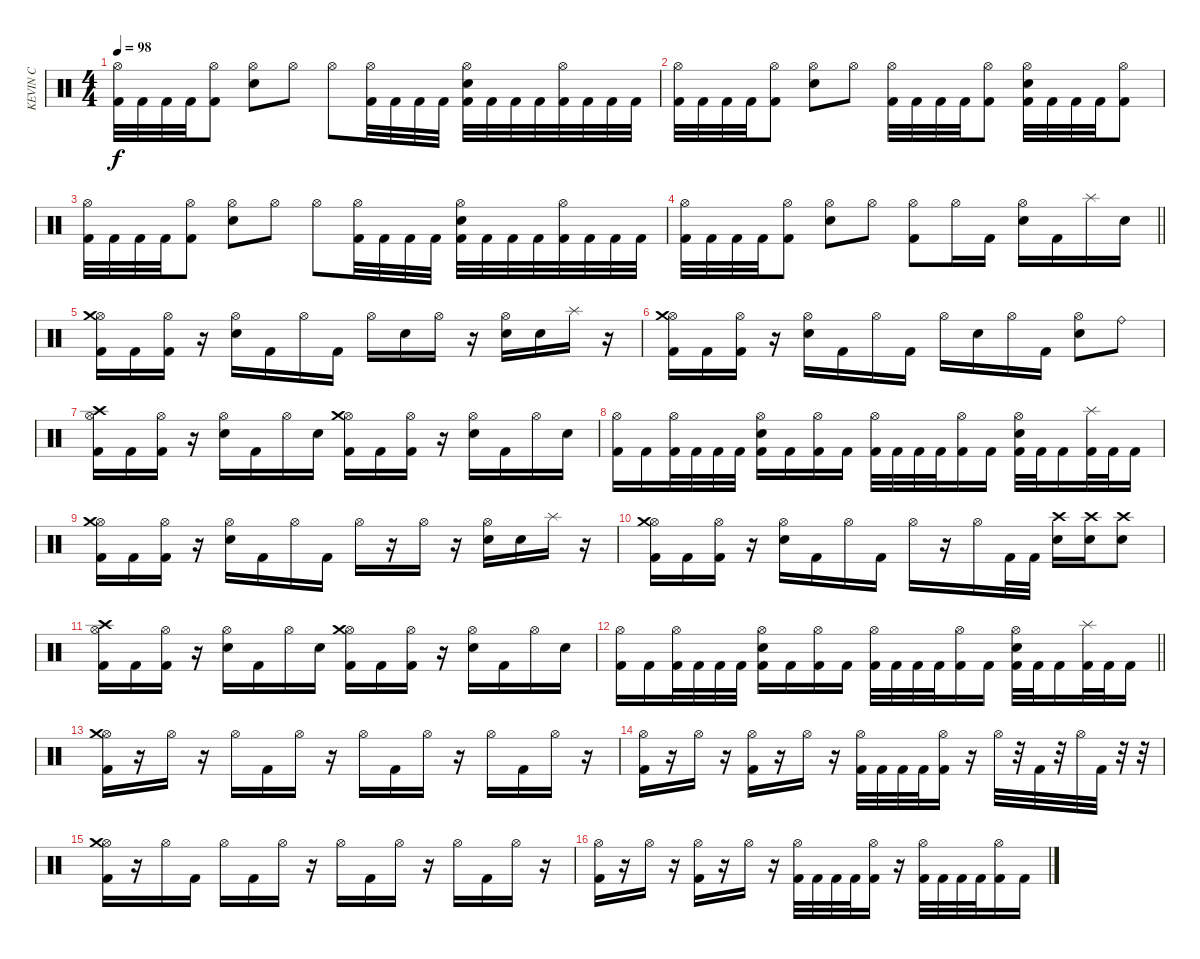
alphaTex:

\track ("KEVIN C" "KEVIN C") {instrument percussion}
\staff {score}
\articulation defaults
\ts (4 4)
\tempo 98
\clef neutral
\ks c
("Hi-Hat (open)" "Kick (hit) 2").32{dy f} "Kick (hit) 2".32 "Kick (hit) 2".32 "Kick (hit) 2".32 ("Hi-Hat (open)" "Kick (hit) 2").8 ("Hi-Hat (open)" "Snare (hit) 2").8 "Hi-Hat (open)".8 "Hi-Hat (open)".8 ("Hi-Hat (open)" "Kick (hit) 2").32 "Kick (hit) 2".32 "Kick (hit) 2".32 "Kick (hit) 2".32 ("Hi-Hat (open)" "Snare (hit) 2" "Kick (hit) 2").32 "Kick (hit) 2".32 "Kick (hit) 2".32 "Kick (hit) 2".32 ("Hi-Hat (open)" "Kick (hit) 2").32 "Kick (hit) 2".32 "Kick (hit) 2".32 "Kick (hit) 2".32 |
("Hi-Hat (open)" "Kick (hit) 2").32 "Kick (hit) 2".32 "Kick (hit) 2".32 "Kick (hit) 2".32 ("Hi-Hat (open)" "Kick (hit) 2").8 ("Hi-Hat (open)" "Snare (hit) 2").8 "Hi-Hat (open)".8 ("Hi-Hat (open)" "Kick (hit) 2").32 "Kick (hit) 2".32 "Kick (hit) 2".32 "Kick (hit) 2".32 ("Hi-Hat (open)" "Kick (hit) 2").8 ("Hi-Hat (open)" "Snare (hit) 2" "Kick (hit) 2").32 "Kick (hit) 2".32 "Kick (hit) 2".32 "Kick (hit) 2".32 ("Hi-Hat (open)" "Kick (hit) 2").8 |
("Hi-Hat (open)" "Kick (hit) 2").32 "Kick (hit) 2".32 "Kick (hit) 2".32 "Kick (hit) 2".32 ("Hi-Hat (open)" "Kick (hit) 2").8 ("Hi-Hat (open)" "Snare (hit) 2").8 "Hi-Hat (open)".8 "Hi-Hat (open)".8 ("Hi-Hat (open)" "Kick (hit) 2").32 "Kick (hit) 2".32 "Kick (hit) 2".32 "Kick (hit) 2".32 ("Hi-Hat (open)" "Snare (hit) 2" "Kick (hit) 2").32 "Kick (hit) 2".32 "Kick (hit) 2".32 "Kick (hit) 2".32 ("Hi-Hat (open)" "Kick (hit) 2").32 "Kick (hit) 2".32 "Kick (hit) 2".32 "Kick (hit) 2".32 |
\barLineRight lightlight
("Hi-Hat (open)" "Kick (hit) 2").32 "Kick (hit) 2".32 "Kick (hit) 2".32 "Kick (hit) 2".32 ("Hi-Hat (open)" "Kick (hit) 2").8 ("Hi-Hat (open)" "Snare (hit) 2").8 "Hi-Hat (open)".8 ("Hi-Hat (open)" "Kick (hit) 2").8 "Hi-Hat (open)".16 "Kick (hit) 2".16 ("Hi-Hat (open)" "Snare (hit) 2").16 "Kick (hit) 2".16 "Splash (hit)".16 "Snare (hit) 2".16 |
("Hi-Hat (open)" "Crash medium (hit)" "Kick (hit) 2").16 "Kick (hit) 2".16 ("Hi-Hat (open)" "Kick (hit) 2").16 r.16 ("Hi-Hat (open)" "Snare (hit) 2").16 "Kick (hit) 2".16 "Hi-Hat (open)".16 "Kick (hit) 2".16 "Hi-Hat (open)".16 "Snare (hit) 2".16 "Hi-Hat (open)".16 r.16 ("Hi-Hat (open)" "Snare (hit) 2").16 "Snare (hit) 2".16 "Splash (hit)".16 r.16 |
("Hi-Hat (open)" "Crash medium (hit)" "Kick (hit) 2").16 "Kick (hit) 2".16 ("Hi-Hat (open)" "Kick (hit) 2").16 r.16 ("Hi-Hat (open)" "Snare (hit) 2").16 "Kick (hit) 2".16 "Hi-Hat (open)".16 "Kick (hit) 2".16 "Hi-Hat (open)".16 "Snare (hit) 2".16 "Hi-Hat (open)".16 "Kick (hit) 2".16 ("Hi-Hat (open)" "Snare (hit) 2").8 "Ride (bell)".8 |
("Hi-Hat (open)" "Crash high (hit)" "Kick (hit) 2").16 "Kick (hit) 2".16 ("Hi-Hat (open)" "Kick (hit) 2").16 r.16 ("Hi-Hat (open)" "Snare (hit) 2").16 "Kick (hit) 2".16 "Hi-Hat (open)".16 "Snare (hit) 2".16 ("Hi-Hat (open)" "Crash medium (hit)" "Kick (hit) 2").16 "Kick (hit) 2".16 ("Hi-Hat (open)" "Kick (hit) 2").16 r.16 ("Hi-Hat (open)" "Snare (hit) 2").16 "Kick (hit) 2".16 "Hi-Hat (open)".16 "Snare (hit) 2".16 |
("Hi-Hat (open)" "Kick (hit) 2").16 "Kick (hit) 2".16 ("Hi-Hat (open)" "Kick (hit) 2").32 "Kick (hit) 2".32 "Kick (hit) 2".32 "Kick (hit) 2".32 ("Hi-Hat (open)" "Snare (hit) 2" "Kick (hit) 2").16 "Kick (hit) 2".16 ("Hi-Hat (open)" "Kick (hit) 2").16 "Kick (hit) 2".16 ("Hi-Hat (open)" "Kick (hit) 2").32 "Kick (hit) 2".32 "Kick (hit) 2".32 "Kick (hit) 2".32 ("Hi-Hat (open)" "Kick (hit) 2").16 "Kick (hit) 2".16 ("Hi-Hat (open)" "Snare (hit) 2" "Kick (hit) 2").32 "Kick (hit) 2".32 "Kick (hit) 2".16 ("Splash (hit)" "Kick (hit) 2").32 "Kick (hit) 2".32 "Kick (hit) 2".16 |
("Hi-Hat (open)" "Crash medium (hit)" "Kick (hit) 2").16 "Kick (hit) 2".16 ("Hi-Hat (open)" "Kick (hit) 2").16 r.16 ("Hi-Hat (open)" "Snare (hit) 2").16 "Kick (hit) 2".16 "Hi-Hat (open)".16 "Kick (hit) 2".16 "Hi-Hat (open)".16 r.16 "Hi-Hat (open)".16 r.16 ("Hi-Hat (open)" "Snare (hit) 2").16 "Snare (hit) 2".16 "Splash (hit)".16 r.16 |
("Hi-Hat (open)" "Crash medium (hit)" "Kick (hit) 2").16 "Kick (hit) 2".16 ("Hi-Hat (open)" "Kick (hit) 2").16 r.16 ("Hi-Hat (open)" "Snare (hit) 2").16 "Kick (hit) 2".16 "Hi-Hat (open)".16 "Kick (hit) 2".16 "Hi-Hat (open)".16 r.16 "Hi-Hat (open)".16 "Kick (hit) 2".32 "Kick (hit) 2".32 ("Crash high (hit)" "Snare (hit) 2").16 ("Crash high (hit)" "Snare (hit) 2").16 ("Crash high (hit)" "Snare (hit) 2").8 |
("Hi-Hat (open)" "Crash high (hit)" "Kick (hit) 2").16 "Kick (hit) 2".16 ("Hi-Hat (open)" "Kick (hit) 2").16 r.16 ("Hi-Hat (open)" "Snare (hit) 2").16 "Kick (hit) 2".16 "Hi-Hat (open)".16 "Snare (hit) 2".16 ("Hi-Hat (open)" "Crash medium (hit)" "Kick (hit) 2").16 "Kick (hit) 2".16 ("Hi-Hat (open)" "Kick (hit) 2").16 r.16 ("Hi-Hat (open)" "Snare (hit) 2").16 "Kick (hit) 2".16 "Hi-Hat (open)".16 "Snare (hit) 2".16 |
\barLineRight lightlight
("Hi-Hat (open)" "Kick (hit) 2").16 "Kick (hit) 2".16 ("Hi-Hat (open)" "Kick (hit) 2").32 "Kick (hit) 2".32 "Kick (hit) 2".32 "Kick (hit) 2".32 ("Hi-Hat (open)" "Snare (hit) 2" "Kick (hit) 2").16 "Kick (hit) 2".16 ("Hi-Hat (open)" "Kick (hit) 2").16 "Kick (hit) 2".16 ("Hi-Hat (open)" "Kick (hit) 2").32 "Kick (hit) 2".32 "Kick (hit) 2".32 "Kick (hit) 2".32 ("Hi-Hat (open)" "Kick (hit) 2").16 "Kick (hit) 2".16 ("Hi-Hat (open)" "Snare (hit) 2" "Kick (hit) 2").32 "Kick (hit) 2".32 "Kick (hit) 2".16 ("Splash (hit)" "Kick (hit) 2").32 "Kick (hit) 2".32 "Kick (hit) 2".16 |
("Hi-Hat (open)" "Crash medium (hit)" "Kick (hit) 2").16 r.16 "Hi-Hat (open)".16 r.16 "Hi-Hat (open)".16 "Kick (hit) 2".16 "Hi-Hat (open)".16 r.16 "Hi-Hat (open)".16 "Kick (hit) 2".16 "Hi-Hat (open)".16 r.16 "Hi-Hat (open)".16 "Kick (hit) 2".16 "Hi-Hat (open)".16 r.16 |
("Hi-Hat (open)" "Kick (hit) 2").16 r.16 "Hi-Hat (open)".16 r.16 ("Hi-Hat (open)" "Kick (hit) 2").16 r.16 "Hi-Hat (open)".16 r.16 ("Hi-Hat (open)" "Kick (hit) 2").32 "Kick (hit) 2".32 "Kick (hit) 2".32 "Kick (hit) 2".32 ("Hi-Hat (open)" "Kick (hit) 2").16 r.16 "Hi-Hat (open)".32 r.32 "Kick (hit) 2".32 r.32 "Hi-Hat (open)".32 "Kick (hit) 2".32 r.32 r.32 |
("Hi-Hat (open)" "Crash medium (hit)" "Kick (hit) 2").16 r.16 "Hi-Hat (open)".16 "Kick (hit) 2".16 "Hi-Hat (open)".16 "Kick (hit) 2".16 "Hi-Hat (open)".16 r.16 "Hi-Hat (open)".16 "Kick (hit) 2".16 "Hi-Hat (open)".16 r.16 "Hi-Hat (open)".16 "Kick (hit) 2".16 "Hi-Hat (open)".16 r.16 |
("Hi-Hat (open)" "Kick (hit) 2").16 r.16 "Hi-Hat (open)".16 r.16 ("Hi-Hat (open)" "Kick (hit) 2").16 r.16 "Hi-Hat (open)".16 r.16 ("Hi-Hat (open)" "Kick (hit) 2").32 "Kick (hit) 2".32 "Kick (hit) 2".32 "Kick (hit) 2".32 ("Hi-Hat (open)" "Kick (hit) 2").16 r.16 ("Hi-Hat (open)" "Kick (hit) 2").32 "Kick (hit) 2".32 "Kick (hit) 2".32 "Kick (hit) 2".32 ("Hi-Hat (open)" "Kick (hit) 2").16 "Kick (hit) 2".16
